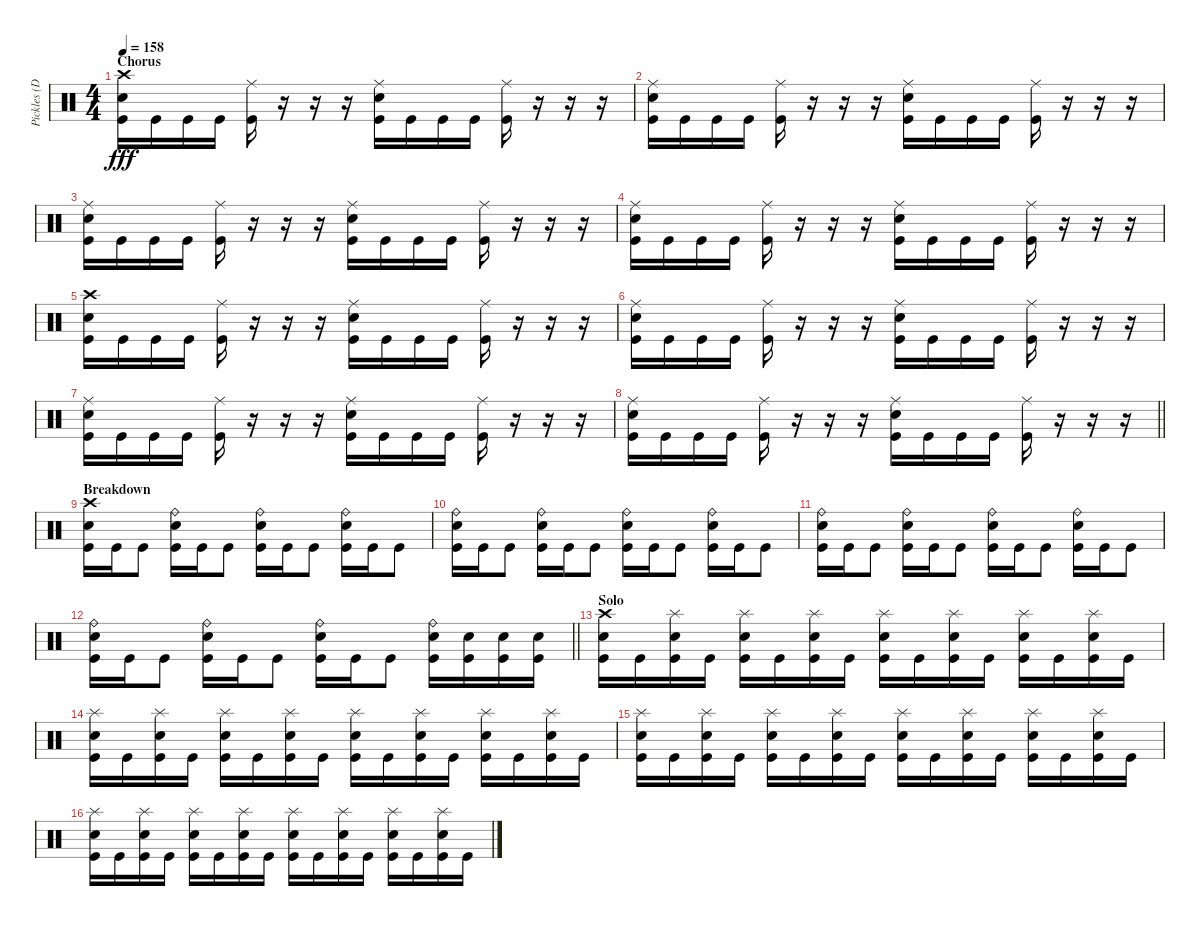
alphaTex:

\track ("Pickles (Drums)" "Pickles (D") {instrument percussion}
\staff {score}
\articulation defaults
\ts (4 4)
\section ("" "Chorus")
\tempo 158
\clef neutral
\ks c
("Crash high (hit)" "Snare (hit) 2" "Kick (hit)").16{dy fff} "Kick (hit)".16 "Kick (hit)".16 "Kick (hit)".16 ("Ride (middle)" "Kick (hit)").16 r.16 r.16 r.16 ("Ride (middle)" "Snare (hit) 2" "Kick (hit)").16 "Kick (hit)".16 "Kick (hit)".16 "Kick (hit)".16 ("Ride (middle)" "Kick (hit)").16 r.16 r.16 r.16 |
("Ride (middle)" "Snare (hit) 2" "Kick (hit)").16 "Kick (hit)".16 "Kick (hit)".16 "Kick (hit)".16 ("Ride (middle)" "Kick (hit)").16 r.16 r.16 r.16 ("Ride (middle)" "Snare (hit) 2" "Kick (hit)").16 "Kick (hit)".16 "Kick (hit)".16 "Kick (hit)".16 ("Ride (middle)" "Kick (hit)").16 r.16 r.16 r.16 |
("Ride (middle)" "Snare (hit) 2" "Kick (hit)").16 "Kick (hit)".16 "Kick (hit)".16 "Kick (hit)".16 ("Ride (middle)" "Kick (hit)").16 r.16 r.16 r.16 ("Ride (middle)" "Snare (hit) 2" "Kick (hit)").16 "Kick (hit)".16 "Kick (hit)".16 "Kick (hit)".16 ("Ride (middle)" "Kick (hit)").16 r.16 r.16 r.16 |
("Ride (middle)" "Snare (hit) 2" "Kick (hit)").16 "Kick (hit)".16 "Kick (hit)".16 "Kick (hit)".16 ("Ride (middle)" "Kick (hit)").16 r.16 r.16 r.16 ("Ride (middle)" "Snare (hit) 2" "Kick (hit)").16 "Kick (hit)".16 "Kick (hit)".16 "Kick (hit)".16 ("Ride (middle)" "Kick (hit)").16 r.16 r.16 r.16 |
("Crash high (hit)" "Snare (hit) 2" "Kick (hit)").16 "Kick (hit)".16 "Kick (hit)".16 "Kick (hit)".16 ("Ride (middle)" "Kick (hit)").16 r.16 r.16 r.16 ("Ride (middle)" "Snare (hit) 2" "Kick (hit)").16 "Kick (hit)".16 "Kick (hit)".16 "Kick (hit)".16 ("Ride (middle)" "Kick (hit)").16 r.16 r.16 r.16 |
("Ride (middle)" "Snare (hit) 2" "Kick (hit)").16 "Kick (hit)".16 "Kick (hit)".16 "Kick (hit)".16 ("Ride (middle)" "Kick (hit)").16 r.16 r.16 r.16 ("Ride (middle)" "Snare (hit) 2" "Kick (hit)").16 "Kick (hit)".16 "Kick (hit)".16 "Kick (hit)".16 ("Ride (middle)" "Kick (hit)").16 r.16 r.16 r.16 |
("Ride (middle)" "Snare (hit) 2" "Kick (hit)").16 "Kick (hit)".16 "Kick (hit)".16 "Kick (hit)".16 ("Ride (middle)" "Kick (hit)").16 r.16 r.16 r.16 ("Ride (middle)" "Snare (hit) 2" "Kick (hit)").16 "Kick (hit)".16 "Kick (hit)".16 "Kick (hit)".16 ("Ride (middle)" "Kick (hit)").16 r.16 r.16 r.16 |
\barLineRight lightlight
("Ride (middle)" "Snare (hit) 2" "Kick (hit)").16 "Kick (hit)".16 "Kick (hit)".16 "Kick (hit)".16 ("Ride (middle)" "Kick (hit)").16 r.16 r.16 r.16 ("Ride (middle)" "Snare (hit) 2" "Kick (hit)").16 "Kick (hit)".16 "Kick (hit)".16 "Kick (hit)".16 ("Ride (middle)" "Kick (hit)").16 r.16 r.16 r.16 |
\section ("" "Breakdown")
("Crash high (hit)" "Snare (hit) 2" "Kick (hit)").16 "Kick (hit)".16 "Kick (hit)".8 ("Ride (bell)" "Snare (hit) 2" "Kick (hit)").16 "Kick (hit)".16 "Kick (hit)".8 ("Ride (bell)" "Snare (hit) 2" "Kick (hit)").16 "Kick (hit)".16 "Kick (hit)".8 ("Ride (bell)" "Snare (hit) 2" "Kick (hit)").16 "Kick (hit)".16 "Kick (hit)".8 |
("Ride (bell)" "Snare (hit) 2" "Kick (hit)").16 "Kick (hit)".16 "Kick (hit)".8 ("Ride (bell)" "Snare (hit) 2" "Kick (hit)").16 "Kick (hit)".16 "Kick (hit)".8 ("Ride (bell)" "Snare (hit) 2" "Kick (hit)").16 "Kick (hit)".16 "Kick (hit)".8 ("Ride (bell)" "Snare (hit) 2" "Kick (hit)").16 "Kick (hit)".16 "Kick (hit)".8 |
("Ride (bell)" "Snare (hit) 2" "Kick (hit)").16 "Kick (hit)".16 "Kick (hit)".8 ("Ride (bell)" "Snare (hit) 2" "Kick (hit)").16 "Kick (hit)".16 "Kick (hit)".8 ("Ride (bell)" "Snare (hit) 2" "Kick (hit)").16 "Kick (hit)".16 "Kick (hit)".8 ("Ride (bell)" "Snare (hit) 2" "Kick (hit)").16 "Kick (hit)".16 "Kick (hit)".8 |
\barLineRight lightlight
("Ride (bell)" "Snare (hit) 2" "Kick (hit)").16 "Kick (hit)".16 "Kick (hit)".8 ("Ride (bell)" "Snare (hit) 2" "Kick (hit)").16 "Kick (hit)".16 "Kick (hit)".8 ("Ride (bell)" "Snare (hit) 2" "Kick (hit)").16 "Kick (hit)".16 "Kick (hit)".8 ("Ride (bell)" "Snare (hit) 2" "Kick (hit)").16 ("Snare (hit) 2" "Kick (hit)").16 ("Snare (hit) 2" "Kick (hit)").16 ("Snare (hit) 2" "Kick (hit)").16 |
\section ("" "Solo")
("Crash high (hit)" "Snare (hit) 2" "Kick (hit)").16 "Kick (hit)".16 ("Splash (hit)" "Snare (hit) 2" "Kick (hit)").16 "Kick (hit)".16 ("Splash (hit)" "Snare (hit) 2" "Kick (hit)").16 "Kick (hit)".16 ("Splash (hit)" "Snare (hit) 2" "Kick (hit)").16 "Kick (hit)".16 ("Splash (hit)" "Snare (hit) 2" "Kick (hit)").16 "Kick (hit)".16 ("Splash (hit)" "Snare (hit) 2" "Kick (hit)").16 "Kick (hit)".16 ("Splash (hit)" "Snare (hit) 2" "Kick (hit)").16 "Kick (hit)".16 ("Splash (hit)" "Snare (hit) 2" "Kick (hit)").16 "Kick (hit)".16 |
("Splash (hit)" "Snare (hit) 2" "Kick (hit)").16 "Kick (hit)".16 ("Splash (hit)" "Snare (hit) 2" "Kick (hit)").16 "Kick (hit)".16 ("Splash (hit)" "Snare (hit) 2" "Kick (hit)").16 "Kick (hit)".16 ("Splash (hit)" "Snare (hit) 2" "Kick (hit)").16 "Kick (hit)".16 ("Splash (hit)" "Snare (hit) 2" "Kick (hit)").16 "Kick (hit)".16 ("Splash (hit)" "Snare (hit) 2" "Kick (hit)").16 "Kick (hit)".16 ("Splash (hit)" "Snare (hit) 2" "Kick (hit)").16 "Kick (hit)".16 ("Splash (hit)" "Snare (hit) 2" "Kick (hit)").16 "Kick (hit)".16 |
("Splash (hit)" "Snare (hit) 2" "Kick (hit)").16 "Kick (hit)".16 ("Splash (hit)" "Snare (hit) 2" "Kick (hit)").16 "Kick (hit)".16 ("Splash (hit)" "Snare (hit) 2" "Kick (hit)").16 "Kick (hit)".16 ("Splash (hit)" "Snare (hit) 2" "Kick (hit)").16 "Kick (hit)".16 ("Splash (hit)" "Snare (hit) 2" "Kick (hit)").16 "Kick (hit)".16 ("Splash (hit)" "Snare (hit) 2" "Kick (hit)").16 "Kick (hit)".16 ("Splash (hit)" "Snare (hit) 2" "Kick (hit)").16 "Kick (hit)".16 ("Splash (hit)" "Snare (hit) 2" "Kick (hit)").16 "Kick (hit)".16 |
("Splash (hit)" "Snare (hit) 2" "Kick (hit)").16 "Kick (hit)".16 ("Splash (hit)" "Snare (hit) 2" "Kick (hit)").16 "Kick (hit)".16 ("Splash (hit)" "Snare (hit) 2" "Kick (hit)").16 "Kick (hit)".16 ("Splash (hit)" "Snare (hit) 2" "Kick (hit)").16 "Kick (hit)".16 ("Splash (hit)" "Snare (hit) 2" "Kick (hit)").16 "Kick (hit)".16 ("Splash (hit)" "Snare (hit) 2" "Kick (hit)").16 "Kick (hit)".16 ("Splash (hit)" "Snare (hit) 2" "Kick (hit)").16 "Kick (hit)".16 ("Splash (hit)" "Snare (hit) 2" "Kick (hit)").16 "Kick (hit)".16
